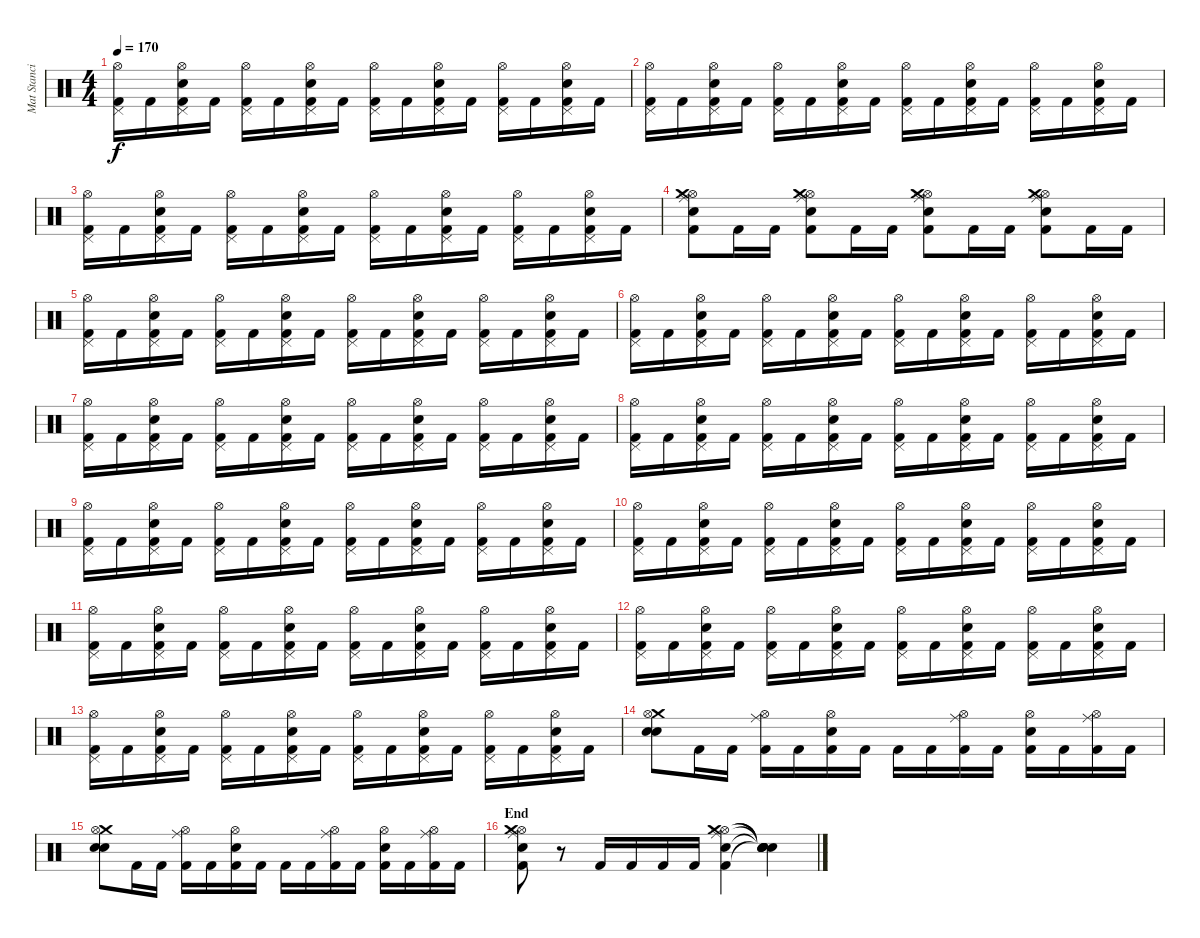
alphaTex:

\track ("Mat Stancioiu" "Mat Stanci") {instrument percussion}
\staff {score}
\articulation defaults
\ts (4 4)
\tempo 170
\clef neutral
\ks c
("Hi-Hat (open)" "Kick (hit) 2" "Pedal Hi-Hat (hit)").16{dy f} "Kick (hit) 2".16 ("Electric Snare (hit)" "Hi-Hat (open)" "Kick (hit) 2" "Pedal Hi-Hat (hit)").16 "Kick (hit) 2".16 ("Hi-Hat (open)" "Kick (hit) 2" "Pedal Hi-Hat (hit)").16 "Kick (hit) 2".16 ("Electric Snare (hit)" "Hi-Hat (open)" "Kick (hit) 2" "Pedal Hi-Hat (hit)").16 "Kick (hit) 2".16 ("Hi-Hat (open)" "Kick (hit) 2" "Pedal Hi-Hat (hit)").16 "Kick (hit) 2".16 ("Electric Snare (hit)" "Hi-Hat (open)" "Kick (hit) 2" "Pedal Hi-Hat (hit)").16 "Kick (hit) 2".16 ("Hi-Hat (open)" "Kick (hit) 2" "Pedal Hi-Hat (hit)").16 "Kick (hit) 2".16 ("Electric Snare (hit)" "Hi-Hat (open)" "Kick (hit) 2" "Pedal Hi-Hat (hit)").16 "Kick (hit) 2".16 |
("Hi-Hat (open)" "Kick (hit) 2" "Pedal Hi-Hat (hit)").16 "Kick (hit) 2".16 ("Electric Snare (hit)" "Hi-Hat (open)" "Kick (hit) 2" "Pedal Hi-Hat (hit)").16 "Kick (hit) 2".16 ("Hi-Hat (open)" "Kick (hit) 2" "Pedal Hi-Hat (hit)").16 "Kick (hit) 2".16 ("Electric Snare (hit)" "Hi-Hat (open)" "Kick (hit) 2" "Pedal Hi-Hat (hit)").16 "Kick (hit) 2".16 ("Hi-Hat (open)" "Kick (hit) 2" "Pedal Hi-Hat (hit)").16 "Kick (hit) 2".16 ("Electric Snare (hit)" "Hi-Hat (open)" "Kick (hit) 2" "Pedal Hi-Hat (hit)").16 "Kick (hit) 2".16 ("Hi-Hat (open)" "Kick (hit) 2" "Pedal Hi-Hat (hit)").16 "Kick (hit) 2".16 ("Electric Snare (hit)" "Hi-Hat (open)" "Kick (hit) 2" "Pedal Hi-Hat (hit)").16 "Kick (hit) 2".16 |
("Hi-Hat (open)" "Kick (hit) 2" "Pedal Hi-Hat (hit)").16 "Kick (hit) 2".16 ("Electric Snare (hit)" "Hi-Hat (open)" "Kick (hit) 2" "Pedal Hi-Hat (hit)").16 "Kick (hit) 2".16 ("Hi-Hat (open)" "Kick (hit) 2" "Pedal Hi-Hat (hit)").16 "Kick (hit) 2".16 ("Electric Snare (hit)" "Hi-Hat (open)" "Kick (hit) 2" "Pedal Hi-Hat (hit)").16 "Kick (hit) 2".16 ("Hi-Hat (open)" "Kick (hit) 2" "Pedal Hi-Hat (hit)").16 "Kick (hit) 2".16 ("Electric Snare (hit)" "Hi-Hat (open)" "Kick (hit) 2" "Pedal Hi-Hat (hit)").16 "Kick (hit) 2".16 ("Hi-Hat (open)" "Kick (hit) 2" "Pedal Hi-Hat (hit)").16 "Kick (hit) 2".16 ("Electric Snare (hit)" "Hi-Hat (open)" "Kick (hit) 2" "Pedal Hi-Hat (hit)").16 "Kick (hit) 2".16 |
("Electric Snare (hit)" "Hi-Hat (open)" "Kick (hit) 2" "Crash medium (hit)" "Ride (middle)").8 "Kick (hit) 2".16 "Kick (hit) 2".16 ("Electric Snare (hit)" "Hi-Hat (open)" "Kick (hit) 2" "Crash medium (hit)" "Ride (middle)").8 "Kick (hit) 2".16 "Kick (hit) 2".16 ("Electric Snare (hit)" "Hi-Hat (open)" "Kick (hit) 2" "Crash medium (hit)" "Ride (middle)").8 "Kick (hit) 2".16 "Kick (hit) 2".16 ("Electric Snare (hit)" "Hi-Hat (open)" "Kick (hit) 2" "Crash medium (hit)" "Ride (middle)").8 "Kick (hit) 2".16 "Kick (hit) 2".16 |
("Hi-Hat (open)" "Kick (hit) 2" "Pedal Hi-Hat (hit)").16 "Kick (hit) 2".16 ("Electric Snare (hit)" "Hi-Hat (open)" "Kick (hit) 2" "Pedal Hi-Hat (hit)").16 "Kick (hit) 2".16 ("Hi-Hat (open)" "Kick (hit) 2" "Pedal Hi-Hat (hit)").16 "Kick (hit) 2".16 ("Electric Snare (hit)" "Hi-Hat (open)" "Kick (hit) 2" "Pedal Hi-Hat (hit)").16 "Kick (hit) 2".16 ("Hi-Hat (open)" "Kick (hit) 2" "Pedal Hi-Hat (hit)").16 "Kick (hit) 2".16 ("Electric Snare (hit)" "Hi-Hat (open)" "Kick (hit) 2" "Pedal Hi-Hat (hit)").16 "Kick (hit) 2".16 ("Hi-Hat (open)" "Kick (hit) 2" "Pedal Hi-Hat (hit)").16 "Kick (hit) 2".16 ("Electric Snare (hit)" "Hi-Hat (open)" "Kick (hit) 2" "Pedal Hi-Hat (hit)").16 "Kick (hit) 2".16 |
("Hi-Hat (open)" "Kick (hit) 2" "Pedal Hi-Hat (hit)").16 "Kick (hit) 2".16 ("Electric Snare (hit)" "Hi-Hat (open)" "Kick (hit) 2" "Pedal Hi-Hat (hit)").16 "Kick (hit) 2".16 ("Hi-Hat (open)" "Kick (hit) 2" "Pedal Hi-Hat (hit)").16 "Kick (hit) 2".16 ("Electric Snare (hit)" "Hi-Hat (open)" "Kick (hit) 2" "Pedal Hi-Hat (hit)").16 "Kick (hit) 2".16 ("Hi-Hat (open)" "Kick (hit) 2" "Pedal Hi-Hat (hit)").16 "Kick (hit) 2".16 ("Electric Snare (hit)" "Hi-Hat (open)" "Kick (hit) 2" "Pedal Hi-Hat (hit)").16 "Kick (hit) 2".16 ("Hi-Hat (open)" "Kick (hit) 2" "Pedal Hi-Hat (hit)").16 "Kick (hit) 2".16 ("Electric Snare (hit)" "Hi-Hat (open)" "Kick (hit) 2" "Pedal Hi-Hat (hit)").16 "Kick (hit) 2".16 |
("Hi-Hat (open)" "Kick (hit) 2" "Pedal Hi-Hat (hit)").16 "Kick (hit) 2".16 ("Electric Snare (hit)" "Hi-Hat (open)" "Kick (hit) 2" "Pedal Hi-Hat (hit)").16 "Kick (hit) 2".16 ("Hi-Hat (open)" "Kick (hit) 2" "Pedal Hi-Hat (hit)").16 "Kick (hit) 2".16 ("Electric Snare (hit)" "Hi-Hat (open)" "Kick (hit) 2" "Pedal Hi-Hat (hit)").16 "Kick (hit) 2".16 ("Hi-Hat (open)" "Kick (hit) 2" "Pedal Hi-Hat (hit)").16 "Kick (hit) 2".16 ("Electric Snare (hit)" "Hi-Hat (open)" "Kick (hit) 2" "Pedal Hi-Hat (hit)").16 "Kick (hit) 2".16 ("Hi-Hat (open)" "Kick (hit) 2" "Pedal Hi-Hat (hit)").16 "Kick (hit) 2".16 ("Electric Snare (hit)" "Hi-Hat (open)" "Kick (hit) 2" "Pedal Hi-Hat (hit)").16 "Kick (hit) 2".16 |
("Hi-Hat (open)" "Kick (hit) 2" "Pedal Hi-Hat (hit)").16 "Kick (hit) 2".16 ("Electric Snare (hit)" "Hi-Hat (open)" "Kick (hit) 2" "Pedal Hi-Hat (hit)").16 "Kick (hit) 2".16 ("Hi-Hat (open)" "Kick (hit) 2" "Pedal Hi-Hat (hit)").16 "Kick (hit) 2".16 ("Electric Snare (hit)" "Hi-Hat (open)" "Kick (hit) 2" "Pedal Hi-Hat (hit)").16 "Kick (hit) 2".16 ("Hi-Hat (open)" "Kick (hit) 2" "Pedal Hi-Hat (hit)").16 "Kick (hit) 2".16 ("Electric Snare (hit)" "Hi-Hat (open)" "Kick (hit) 2" "Pedal Hi-Hat (hit)").16 "Kick (hit) 2".16 ("Hi-Hat (open)" "Kick (hit) 2" "Pedal Hi-Hat (hit)").16 "Kick (hit) 2".16 ("Electric Snare (hit)" "Hi-Hat (open)" "Kick (hit) 2" "Pedal Hi-Hat (hit)").16 "Kick (hit) 2".16 |
("Hi-Hat (open)" "Kick (hit) 2" "Pedal Hi-Hat (hit)").16 "Kick (hit) 2".16 ("Electric Snare (hit)" "Hi-Hat (open)" "Kick (hit) 2" "Pedal Hi-Hat (hit)").16 "Kick (hit) 2".16 ("Hi-Hat (open)" "Kick (hit) 2" "Pedal Hi-Hat (hit)").16 "Kick (hit) 2".16 ("Electric Snare (hit)" "Hi-Hat (open)" "Kick (hit) 2" "Pedal Hi-Hat (hit)").16 "Kick (hit) 2".16 ("Hi-Hat (open)" "Kick (hit) 2" "Pedal Hi-Hat (hit)").16 "Kick (hit) 2".16 ("Electric Snare (hit)" "Hi-Hat (open)" "Kick (hit) 2" "Pedal Hi-Hat (hit)").16 "Kick (hit) 2".16 ("Hi-Hat (open)" "Kick (hit) 2" "Pedal Hi-Hat (hit)").16 "Kick (hit) 2".16 ("Electric Snare (hit)" "Hi-Hat (open)" "Kick (hit) 2" "Pedal Hi-Hat (hit)").16 "Kick (hit) 2".16 |
("Hi-Hat (open)" "Kick (hit) 2" "Pedal Hi-Hat (hit)").16 "Kick (hit) 2".16 ("Electric Snare (hit)" "Hi-Hat (open)" "Kick (hit) 2" "Pedal Hi-Hat (hit)").16 "Kick (hit) 2".16 ("Hi-Hat (open)" "Kick (hit) 2" "Pedal Hi-Hat (hit)").16 "Kick (hit) 2".16 ("Electric Snare (hit)" "Hi-Hat (open)" "Kick (hit) 2" "Pedal Hi-Hat (hit)").16 "Kick (hit) 2".16 ("Hi-Hat (open)" "Kick (hit) 2" "Pedal Hi-Hat (hit)").16 "Kick (hit) 2".16 ("Electric Snare (hit)" "Hi-Hat (open)" "Kick (hit) 2" "Pedal Hi-Hat (hit)").16 "Kick (hit) 2".16 ("Hi-Hat (open)" "Kick (hit) 2" "Pedal Hi-Hat (hit)").16 "Kick (hit) 2".16 ("Electric Snare (hit)" "Hi-Hat (open)" "Kick (hit) 2" "Pedal Hi-Hat (hit)").16 "Kick (hit) 2".16 |
("Hi-Hat (open)" "Kick (hit) 2" "Pedal Hi-Hat (hit)").16 "Kick (hit) 2".16 ("Electric Snare (hit)" "Hi-Hat (open)" "Kick (hit) 2" "Pedal Hi-Hat (hit)").16 "Kick (hit) 2".16 ("Hi-Hat (open)" "Kick (hit) 2" "Pedal Hi-Hat (hit)").16 "Kick (hit) 2".16 ("Electric Snare (hit)" "Hi-Hat (open)" "Kick (hit) 2" "Pedal Hi-Hat (hit)").16 "Kick (hit) 2".16 ("Hi-Hat (open)" "Kick (hit) 2" "Pedal Hi-Hat (hit)").16 "Kick (hit) 2".16 ("Electric Snare (hit)" "Hi-Hat (open)" "Kick (hit) 2" "Pedal Hi-Hat (hit)").16 "Kick (hit) 2".16 ("Hi-Hat (open)" "Kick (hit) 2" "Pedal Hi-Hat (hit)").16 "Kick (hit) 2".16 ("Electric Snare (hit)" "Hi-Hat (open)" "Kick (hit) 2" "Pedal Hi-Hat (hit)").16 "Kick (hit) 2".16 |
("Hi-Hat (open)" "Kick (hit) 2" "Pedal Hi-Hat (hit)").16 "Kick (hit) 2".16 ("Electric Snare (hit)" "Hi-Hat (open)" "Kick (hit) 2" "Pedal Hi-Hat (hit)").16 "Kick (hit) 2".16 ("Hi-Hat (open)" "Kick (hit) 2" "Pedal Hi-Hat (hit)").16 "Kick (hit) 2".16 ("Electric Snare (hit)" "Hi-Hat (open)" "Kick (hit) 2" "Pedal Hi-Hat (hit)").16 "Kick (hit) 2".16 ("Hi-Hat (open)" "Kick (hit) 2" "Pedal Hi-Hat (hit)").16 "Kick (hit) 2".16 ("Electric Snare (hit)" "Hi-Hat (open)" "Kick (hit) 2" "Pedal Hi-Hat (hit)").16 "Kick (hit) 2".16 ("Hi-Hat (open)" "Kick (hit) 2" "Pedal Hi-Hat (hit)").16 "Kick (hit) 2".16 ("Electric Snare (hit)" "Hi-Hat (open)" "Kick (hit) 2" "Pedal Hi-Hat (hit)").16 "Kick (hit) 2".16 |
("Hi-Hat (open)" "Kick (hit) 2" "Pedal Hi-Hat (hit)").16 "Kick (hit) 2".16 ("Electric Snare (hit)" "Hi-Hat (open)" "Kick (hit) 2" "Pedal Hi-Hat (hit)").16 "Kick (hit) 2".16 ("Hi-Hat (open)" "Kick (hit) 2" "Pedal Hi-Hat (hit)").16 "Kick (hit) 2".16 ("Electric Snare (hit)" "Hi-Hat (open)" "Kick (hit) 2" "Pedal Hi-Hat (hit)").16 "Kick (hit) 2".16 ("Hi-Hat (open)" "Kick (hit) 2" "Pedal Hi-Hat (hit)").16 "Kick (hit) 2".16 ("Electric Snare (hit)" "Hi-Hat (open)" "Kick (hit) 2" "Pedal Hi-Hat (hit)").16 "Kick (hit) 2".16 ("Hi-Hat (open)" "Kick (hit) 2" "Pedal Hi-Hat (hit)").16 "Kick (hit) 2".16 ("Electric Snare (hit)" "Hi-Hat (open)" "Kick (hit) 2" "Pedal Hi-Hat (hit)").16 "Kick (hit) 2".16 |
("Crash medium (hit)" "Hi-Hat (open)" "Snare (hit)" "Electric Snare (hit)").8 "Kick (hit) 2".16 "Kick (hit) 2".16 ("Kick (hit) 2" "Hi-Hat (open)" "Ride (middle)").16 "Kick (hit) 2".16 ("Electric Snare (hit)" "Hi-Hat (open)" "Kick (hit) 2").16 "Kick (hit) 2".16 "Kick (hit) 2".16 "Kick (hit) 2".16 ("Kick (hit) 2" "Hi-Hat (open)" "Ride (middle)").16 "Kick (hit) 2".16 ("Electric Snare (hit)" "Hi-Hat (open)" "Kick (hit) 2").16 "Kick (hit) 2".16 ("Kick (hit) 2" "Hi-Hat (open)" "Ride (middle)").16 "Kick (hit) 2".16 |
("Crash medium (hit)" "Hi-Hat (open)" "Snare (hit)" "Electric Snare (hit)").8 "Kick (hit) 2".16 "Kick (hit) 2".16 ("Kick (hit) 2" "Hi-Hat (open)" "Ride (middle)").16 "Kick (hit) 2".16 ("Electric Snare (hit)" "Hi-Hat (open)" "Kick (hit) 2").16 "Kick (hit) 2".16 "Kick (hit) 2".16 "Kick (hit) 2".16 ("Kick (hit) 2" "Hi-Hat (open)" "Ride (middle)").16 "Kick (hit) 2".16 ("Electric Snare (hit)" "Hi-Hat (open)" "Kick (hit) 2").16 "Kick (hit) 2".16 ("Kick (hit) 2" "Hi-Hat (open)" "Ride (middle)").16 "Kick (hit) 2".16 |
\section ("" "End")
("Electric Snare (hit)" "Hi-Hat (open)" "Kick (hit) 2" "Crash medium (hit)" "Ride (middle)").8 r.8 "Kick (hit) 2".16 "Kick (hit) 2".16 "Kick (hit) 2".16 "Kick (hit) 2".16 ("Electric Snare (hit)" "Hi-Hat (open)" "Kick (hit) 2" "Crash medium (hit)" "Ride (middle)").4 ("Snare (hit)"{t} "Snare (hit)"{t} "Snare (hit)"{t} "Snare (hit)"{t} "Snare (hit)"{t}).4
